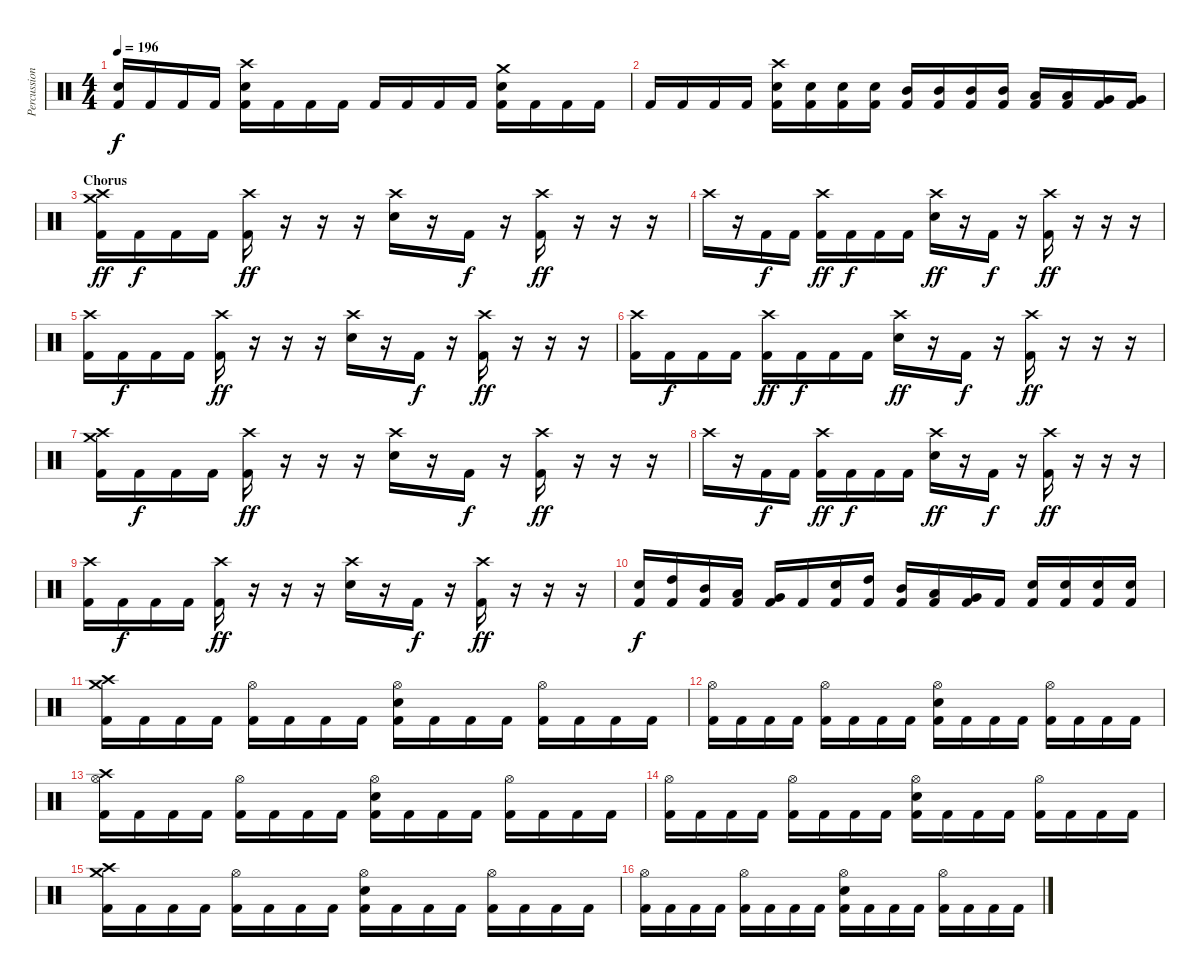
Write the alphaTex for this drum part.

\track ("Percussions" "Percussion") {instrument percussion}
\staff {score}
\articulation defaults
\ts (4 4)
\tempo 196
\clef neutral
\ks c
("Electric Snare (hit)" "Kick (hit) 2").16{dy f} "Kick (hit) 2".16 "Kick (hit) 2".16 "Kick (hit) 2".16 ("Crash high (hit)" "Electric Snare (hit)" "Kick (hit) 2").16 "Kick (hit) 2".16 "Kick (hit) 2".16 "Kick (hit) 2".16 "Kick (hit) 2".16 "Kick (hit) 2".16 "Kick (hit) 2".16 "Kick (hit) 2".16 ("Crash medium (hit)" "Electric Snare (hit)" "Kick (hit) 2").16 "Kick (hit) 2".16 "Kick (hit) 2".16 "Kick (hit) 2".16 |
"Kick (hit) 2".16 "Kick (hit) 2".16 "Kick (hit) 2".16 "Kick (hit) 2".16 ("Crash high (hit)" "Electric Snare (hit)" "Kick (hit) 2").16 ("Electric Snare (hit)" "Kick (hit) 2").16 ("Electric Snare (hit)" "Kick (hit) 2").16 ("Electric Snare (hit)" "Kick (hit) 2").16 ("Mid Tom (hit)" "Kick (hit) 2").16 ("Mid Tom (hit)" "Kick (hit) 2").16 ("Mid Tom (hit)" "Kick (hit) 2").16 ("Mid Tom (hit)" "Kick (hit) 2").16 ("Low Tom (hit)" "Kick (hit) 2").16 ("Low Tom (hit)" "Kick (hit) 2").16 ("Very Low Tom (hit)" "Kick (hit) 2").16 ("Very Low Tom (hit)" "Kick (hit) 2").16 |
\section ("" "Chorus")
("Crash medium (hit)" "Crash high (hit)" "Kick (hit) 2").16{dy ff} "Kick (hit) 2".16{dy f} "Kick (hit) 2".16 "Kick (hit) 2".16 ("Crash high (hit)" "Kick (hit) 2").16{dy ff} r.16 r.16 r.16 ("Crash high (hit)" "Electric Snare (hit)").16 r.16 "Kick (hit) 2".16{dy f} r.16 ("Crash high (hit)" "Kick (hit) 2").16{dy ff} r.16 r.16 r.16 |
"Crash high (hit)".16 r.16 "Kick (hit) 2".16{dy f} "Kick (hit) 2".16 ("Crash high (hit)" "Kick (hit) 2").16{dy ff} "Kick (hit) 2".16{dy f} "Kick (hit) 2".16 "Kick (hit) 2".16 ("Crash high (hit)" "Electric Snare (hit)").16{dy ff} r.16 "Kick (hit) 2".16{dy f} r.16 ("Crash high (hit)" "Kick (hit) 2").16{dy ff} r.16 r.16 r.16 |
("Crash high (hit)" "Kick (hit) 2").16 "Kick (hit) 2".16{dy f} "Kick (hit) 2".16 "Kick (hit) 2".16 ("Crash high (hit)" "Kick (hit) 2").16{dy ff} r.16 r.16 r.16 ("Crash high (hit)" "Electric Snare (hit)").16 r.16 "Kick (hit) 2".16{dy f} r.16 ("Crash high (hit)" "Kick (hit) 2").16{dy ff} r.16 r.16 r.16 |
("Crash high (hit)" "Kick (hit) 2").16 "Kick (hit) 2".16{dy f} "Kick (hit) 2".16 "Kick (hit) 2".16 ("Crash high (hit)" "Kick (hit) 2").16{dy ff} "Kick (hit) 2".16{dy f} "Kick (hit) 2".16 "Kick (hit) 2".16 ("Crash high (hit)" "Electric Snare (hit)").16{dy ff} r.16 "Kick (hit) 2".16{dy f} r.16 ("Crash high (hit)" "Kick (hit) 2").16{dy ff} r.16 r.16 r.16 |
("Crash medium (hit)" "Crash high (hit)" "Kick (hit) 2").16 "Kick (hit) 2".16{dy f} "Kick (hit) 2".16 "Kick (hit) 2".16 ("Crash high (hit)" "Kick (hit) 2").16{dy ff} r.16 r.16 r.16 ("Crash high (hit)" "Electric Snare (hit)").16 r.16 "Kick (hit) 2".16{dy f} r.16 ("Crash high (hit)" "Kick (hit) 2").16{dy ff} r.16 r.16 r.16 |
"Crash high (hit)".16 r.16 "Kick (hit) 2".16{dy f} "Kick (hit) 2".16 ("Crash high (hit)" "Kick (hit) 2").16{dy ff} "Kick (hit) 2".16{dy f} "Kick (hit) 2".16 "Kick (hit) 2".16 ("Crash high (hit)" "Electric Snare (hit)").16{dy ff} r.16 "Kick (hit) 2".16{dy f} r.16 ("Crash high (hit)" "Kick (hit) 2").16{dy ff} r.16 r.16 r.16 |
("Crash high (hit)" "Kick (hit) 2").16 "Kick (hit) 2".16{dy f} "Kick (hit) 2".16 "Kick (hit) 2".16 ("Crash high (hit)" "Kick (hit) 2").16{dy ff} r.16 r.16 r.16 ("Crash high (hit)" "Electric Snare (hit)").16 r.16 "Kick (hit) 2".16{dy f} r.16 ("Crash high (hit)" "Kick (hit) 2").16{dy ff} r.16 r.16 r.16 |
("Electric Snare (hit)" "Kick (hit) 2").16{dy f} ("High Tom (hit)" "Kick (hit) 2").16 ("Mid Tom (hit)" "Kick (hit) 2").16 ("Low Tom (hit)" "Kick (hit) 2").16 ("Very Low Tom (hit)" "Kick (hit) 2").16 "Kick (hit) 2".16 ("Electric Snare (hit)" "Kick (hit) 2").16 ("High Tom (hit)" "Kick (hit) 2").16 ("Mid Tom (hit)" "Kick (hit) 2").16 ("Low Tom (hit)" "Kick (hit) 2").16 ("Very Low Tom (hit)" "Kick (hit) 2").16 "Kick (hit) 2".16 ("Electric Snare (hit)" "Kick (hit) 2").16 ("Electric Snare (hit)" "Kick (hit) 2").16 ("Electric Snare (hit)" "Kick (hit) 2").16 ("Electric Snare (hit)" "Kick (hit) 2").16 |
("Crash medium (hit)" "Crash high (hit)" "Kick (hit) 2").16 "Kick (hit) 2".16 "Kick (hit) 2".16 "Kick (hit) 2".16 ("Hi-Hat (open)" "Kick (hit) 2").16 "Kick (hit) 2".16 "Kick (hit) 2".16 "Kick (hit) 2".16 ("Hi-Hat (open)" "Electric Snare (hit)" "Kick (hit) 2").16 "Kick (hit) 2".16 "Kick (hit) 2".16 "Kick (hit) 2".16 ("Hi-Hat (open)" "Kick (hit) 2").16 "Kick (hit) 2".16 "Kick (hit) 2".16 "Kick (hit) 2".16 |
("Hi-Hat (open)" "Kick (hit) 2").16 "Kick (hit) 2".16 "Kick (hit) 2".16 "Kick (hit) 2".16 ("Hi-Hat (open)" "Kick (hit) 2").16 "Kick (hit) 2".16 "Kick (hit) 2".16 "Kick (hit) 2".16 ("Hi-Hat (open)" "Electric Snare (hit)" "Kick (hit) 2").16 "Kick (hit) 2".16 "Kick (hit) 2".16 "Kick (hit) 2".16 ("Hi-Hat (open)" "Kick (hit) 2").16 "Kick (hit) 2".16 "Kick (hit) 2".16 "Kick (hit) 2".16 |
("Crash high (hit)" "Hi-Hat (open)" "Kick (hit) 2").16 "Kick (hit) 2".16 "Kick (hit) 2".16 "Kick (hit) 2".16 ("Hi-Hat (open)" "Kick (hit) 2").16 "Kick (hit) 2".16 "Kick (hit) 2".16 "Kick (hit) 2".16 ("Hi-Hat (open)" "Electric Snare (hit)" "Kick (hit) 2").16 "Kick (hit) 2".16 "Kick (hit) 2".16 "Kick (hit) 2".16 ("Hi-Hat (open)" "Kick (hit) 2").16 "Kick (hit) 2".16 "Kick (hit) 2".16 "Kick (hit) 2".16 |
("Hi-Hat (open)" "Kick (hit) 2").16 "Kick (hit) 2".16 "Kick (hit) 2".16 "Kick (hit) 2".16 ("Hi-Hat (open)" "Kick (hit) 2").16 "Kick (hit) 2".16 "Kick (hit) 2".16 "Kick (hit) 2".16 ("Hi-Hat (open)" "Electric Snare (hit)" "Kick (hit) 2").16 "Kick (hit) 2".16 "Kick (hit) 2".16 "Kick (hit) 2".16 ("Hi-Hat (open)" "Kick (hit) 2").16 "Kick (hit) 2".16 "Kick (hit) 2".16 "Kick (hit) 2".16 |
("Crash medium (hit)" "Crash high (hit)" "Kick (hit) 2").16 "Kick (hit) 2".16 "Kick (hit) 2".16 "Kick (hit) 2".16 ("Hi-Hat (open)" "Kick (hit) 2").16 "Kick (hit) 2".16 "Kick (hit) 2".16 "Kick (hit) 2".16 ("Hi-Hat (open)" "Electric Snare (hit)" "Kick (hit) 2").16 "Kick (hit) 2".16 "Kick (hit) 2".16 "Kick (hit) 2".16 ("Hi-Hat (open)" "Kick (hit) 2").16 "Kick (hit) 2".16 "Kick (hit) 2".16 "Kick (hit) 2".16 |
("Hi-Hat (open)" "Kick (hit) 2").16 "Kick (hit) 2".16 "Kick (hit) 2".16 "Kick (hit) 2".16 ("Hi-Hat (open)" "Kick (hit) 2").16 "Kick (hit) 2".16 "Kick (hit) 2".16 "Kick (hit) 2".16 ("Hi-Hat (open)" "Electric Snare (hit)" "Kick (hit) 2").16 "Kick (hit) 2".16 "Kick (hit) 2".16 "Kick (hit) 2".16 ("Hi-Hat (open)" "Kick (hit) 2").16 "Kick (hit) 2".16 "Kick (hit) 2".16 "Kick (hit) 2".16
